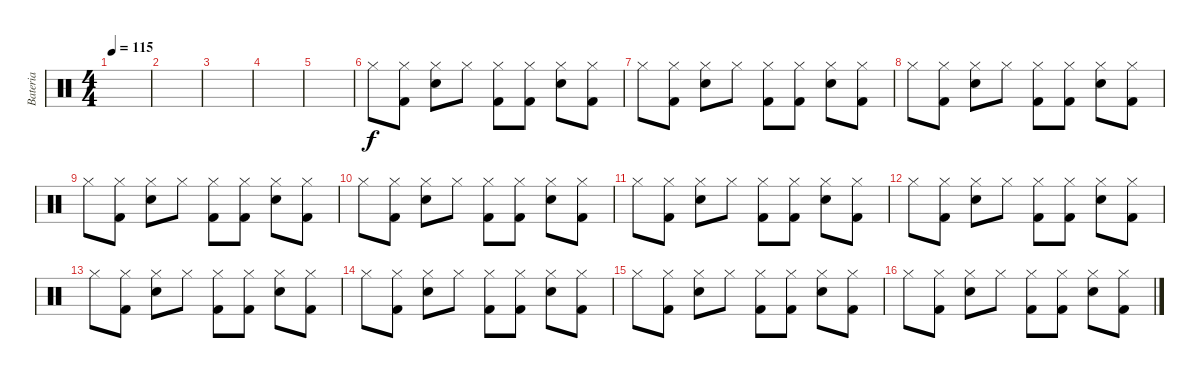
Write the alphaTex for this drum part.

\track ("Bateria" "Bateria") {instrument percussion}
\staff {score}
\articulation defaults
\ts (4 4)
\tempo 115
\clef neutral
\ks c
|
|
|
|
|
"Hi-Hat (closed)".8 ("Hi-Hat (closed)" "Kick (hit) 2").8 ("Hi-Hat (closed)" "Snare (hit) 2").8 "Hi-Hat (closed)".8 ("Hi-Hat (closed)" "Kick (hit) 2").8 ("Hi-Hat (closed)" "Kick (hit) 2").8 ("Hi-Hat (closed)" "Snare (hit) 2").8 ("Hi-Hat (closed)" "Kick (hit) 2").8 |
"Hi-Hat (closed)".8 ("Hi-Hat (closed)" "Kick (hit) 2").8 ("Hi-Hat (closed)" "Snare (hit) 2").8 "Hi-Hat (closed)".8 ("Hi-Hat (closed)" "Kick (hit) 2").8 ("Hi-Hat (closed)" "Kick (hit) 2").8 ("Hi-Hat (closed)" "Snare (hit) 2").8 ("Hi-Hat (closed)" "Kick (hit) 2").8 |
"Hi-Hat (closed)".8 ("Hi-Hat (closed)" "Kick (hit) 2").8 ("Hi-Hat (closed)" "Snare (hit) 2").8 "Hi-Hat (closed)".8 ("Hi-Hat (closed)" "Kick (hit) 2").8 ("Hi-Hat (closed)" "Kick (hit) 2").8 ("Hi-Hat (closed)" "Snare (hit) 2").8 ("Hi-Hat (closed)" "Kick (hit) 2").8 |
"Hi-Hat (closed)".8 ("Hi-Hat (closed)" "Kick (hit) 2").8 ("Hi-Hat (closed)" "Snare (hit) 2").8 "Hi-Hat (closed)".8 ("Hi-Hat (closed)" "Kick (hit) 2").8 ("Hi-Hat (closed)" "Kick (hit) 2").8 ("Hi-Hat (closed)" "Snare (hit) 2").8 ("Hi-Hat (closed)" "Kick (hit) 2").8 |
"Hi-Hat (closed)".8 ("Hi-Hat (closed)" "Kick (hit) 2").8 ("Hi-Hat (closed)" "Snare (hit) 2").8 "Hi-Hat (closed)".8 ("Hi-Hat (closed)" "Kick (hit) 2").8 ("Hi-Hat (closed)" "Kick (hit) 2").8 ("Hi-Hat (closed)" "Snare (hit) 2").8 ("Hi-Hat (closed)" "Kick (hit) 2").8 |
"Hi-Hat (closed)".8 ("Hi-Hat (closed)" "Kick (hit) 2").8 ("Hi-Hat (closed)" "Snare (hit) 2").8 "Hi-Hat (closed)".8 ("Hi-Hat (closed)" "Kick (hit) 2").8 ("Hi-Hat (closed)" "Kick (hit) 2").8 ("Hi-Hat (closed)" "Snare (hit) 2").8 ("Hi-Hat (closed)" "Kick (hit) 2").8 |
"Hi-Hat (closed)".8 ("Hi-Hat (closed)" "Kick (hit) 2").8 ("Hi-Hat (closed)" "Snare (hit) 2").8 "Hi-Hat (closed)".8 ("Hi-Hat (closed)" "Kick (hit) 2").8 ("Hi-Hat (closed)" "Kick (hit) 2").8 ("Hi-Hat (closed)" "Snare (hit) 2").8 ("Hi-Hat (closed)" "Kick (hit) 2").8 |
"Hi-Hat (closed)".8 ("Hi-Hat (closed)" "Kick (hit) 2").8 ("Hi-Hat (closed)" "Snare (hit) 2").8 "Hi-Hat (closed)".8 ("Hi-Hat (closed)" "Kick (hit) 2").8 ("Hi-Hat (closed)" "Kick (hit) 2").8 ("Hi-Hat (closed)" "Snare (hit) 2").8 ("Hi-Hat (closed)" "Kick (hit) 2").8 |
"Hi-Hat (closed)".8 ("Hi-Hat (closed)" "Kick (hit) 2").8 ("Hi-Hat (closed)" "Snare (hit) 2").8 "Hi-Hat (closed)".8 ("Hi-Hat (closed)" "Kick (hit) 2").8 ("Hi-Hat (closed)" "Kick (hit) 2").8 ("Hi-Hat (closed)" "Snare (hit) 2").8 ("Hi-Hat (closed)" "Kick (hit) 2").8 |
"Hi-Hat (closed)".8 ("Hi-Hat (closed)" "Kick (hit) 2").8 ("Hi-Hat (closed)" "Snare (hit) 2").8 "Hi-Hat (closed)".8 ("Hi-Hat (closed)" "Kick (hit) 2").8 ("Hi-Hat (closed)" "Kick (hit) 2").8 ("Hi-Hat (closed)" "Snare (hit) 2").8 ("Hi-Hat (closed)" "Kick (hit) 2").8 |
"Hi-Hat (closed)".8 ("Hi-Hat (closed)" "Kick (hit) 2").8 ("Hi-Hat (closed)" "Snare (hit) 2").8 "Hi-Hat (closed)".8 ("Hi-Hat (closed)" "Kick (hit) 2").8 ("Hi-Hat (closed)" "Kick (hit) 2").8 ("Hi-Hat (closed)" "Snare (hit) 2").8 ("Hi-Hat (closed)" "Kick (hit) 2").8
